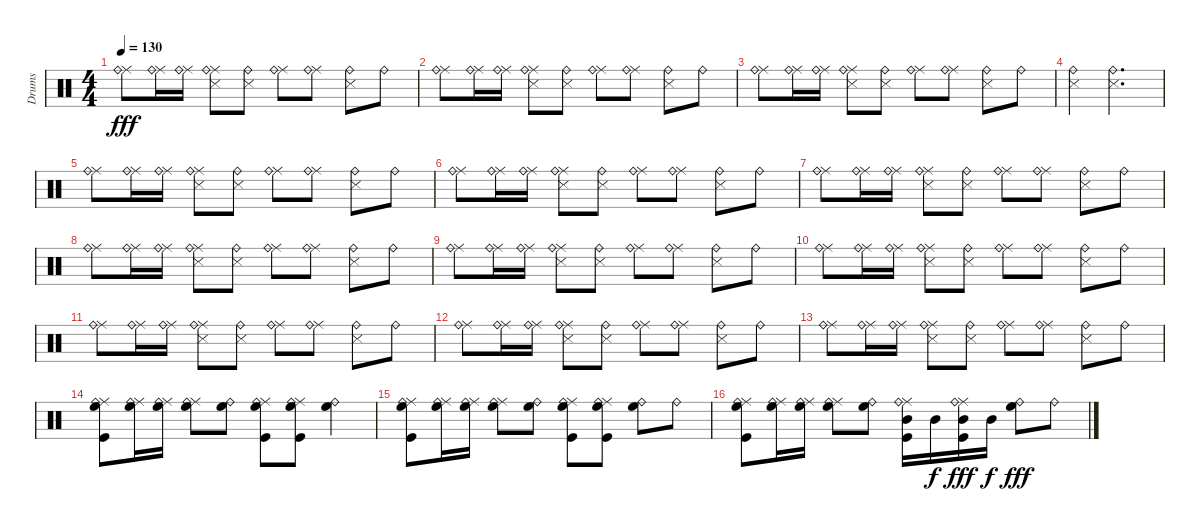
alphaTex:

\track ("Drums" "Drums") {instrument percussion}
\staff {score}
\articulation defaults
\ts (4 4)
\tempo 130
\clef neutral
\ks c
("Ride (middle)" "Ride (bell)").8{dy fff} ("Ride (middle)" "Ride (bell)").16 ("Ride (middle)" "Ride (bell)").16 ("Ride (middle)" "Ride (bell)" "Snare (side stick) 3").8 ("Ride (bell)" "Snare (side stick) 3").8 ("Ride (middle)" "Ride (bell)").8 ("Ride (middle)" "Ride (bell)").8 ("Ride (bell)" "Snare (side stick) 3").8 "Ride (bell)".8 |
("Ride (middle)" "Ride (bell)").8 ("Ride (middle)" "Ride (bell)").16 ("Ride (middle)" "Ride (bell)").16 ("Ride (middle)" "Ride (bell)" "Snare (side stick) 3").8 ("Ride (bell)" "Snare (side stick) 3").8 ("Ride (middle)" "Ride (bell)").8 ("Ride (middle)" "Ride (bell)").8 ("Ride (bell)" "Snare (side stick) 3").8 "Ride (bell)".8 |
("Ride (middle)" "Ride (bell)").8 ("Ride (middle)" "Ride (bell)").16 ("Ride (middle)" "Ride (bell)").16 ("Ride (middle)" "Ride (bell)" "Snare (side stick) 3").8 ("Ride (bell)" "Snare (side stick) 3").8 ("Ride (middle)" "Ride (bell)").8 ("Ride (middle)" "Ride (bell)").8 ("Ride (bell)" "Snare (side stick) 3").8 "Ride (bell)".8 |
("Ride (bell)" "Snare (side stick) 3").4 ("Ride (bell)" "Snare (side stick) 3").2{d} |
("Ride (middle)" "Ride (bell)").8 ("Ride (middle)" "Ride (bell)").16 ("Ride (middle)" "Ride (bell)").16 ("Ride (middle)" "Ride (bell)" "Snare (side stick) 3").8 ("Ride (bell)" "Snare (side stick) 3").8 ("Ride (middle)" "Ride (bell)").8 ("Ride (middle)" "Ride (bell)").8 ("Ride (bell)" "Snare (side stick) 3").8 "Ride (bell)".8 |
("Ride (middle)" "Ride (bell)").8 ("Ride (middle)" "Ride (bell)").16 ("Ride (middle)" "Ride (bell)").16 ("Ride (middle)" "Ride (bell)" "Snare (side stick) 3").8 ("Ride (bell)" "Snare (side stick) 3").8 ("Ride (middle)" "Ride (bell)").8 ("Ride (middle)" "Ride (bell)").8 ("Ride (bell)" "Snare (side stick) 3").8 "Ride (bell)".8 |
("Ride (middle)" "Ride (bell)").8 ("Ride (middle)" "Ride (bell)").16 ("Ride (middle)" "Ride (bell)").16 ("Ride (middle)" "Ride (bell)" "Snare (side stick) 3").8 ("Ride (bell)" "Snare (side stick) 3").8 ("Ride (middle)" "Ride (bell)").8 ("Ride (middle)" "Ride (bell)").8 ("Ride (bell)" "Snare (side stick) 3").8 "Ride (bell)".8 |
("Ride (middle)" "Ride (bell)").8 ("Ride (middle)" "Ride (bell)").16 ("Ride (middle)" "Ride (bell)").16 ("Ride (middle)" "Ride (bell)" "Snare (side stick) 3").8 ("Ride (bell)" "Snare (side stick) 3").8 ("Ride (middle)" "Ride (bell)").8 ("Ride (middle)" "Ride (bell)").8 ("Ride (bell)" "Snare (side stick) 3").8 "Ride (bell)".8 |
("Ride (middle)" "Ride (bell)").8 ("Ride (middle)" "Ride (bell)").16 ("Ride (middle)" "Ride (bell)").16 ("Ride (middle)" "Ride (bell)" "Snare (side stick) 3").8 ("Ride (bell)" "Snare (side stick) 3").8 ("Ride (middle)" "Ride (bell)").8 ("Ride (middle)" "Ride (bell)").8 ("Ride (bell)" "Snare (side stick) 3").8 "Ride (bell)".8 |
("Ride (middle)" "Ride (bell)").8 ("Ride (middle)" "Ride (bell)").16 ("Ride (middle)" "Ride (bell)").16 ("Ride (middle)" "Ride (bell)" "Snare (side stick) 3").8 ("Ride (bell)" "Snare (side stick) 3").8 ("Ride (middle)" "Ride (bell)").8 ("Ride (middle)" "Ride (bell)").8 ("Ride (bell)" "Snare (side stick) 3").8 "Ride (bell)".8 |
("Ride (middle)" "Ride (bell)").8 ("Ride (middle)" "Ride (bell)").16 ("Ride (middle)" "Ride (bell)").16 ("Ride (middle)" "Ride (bell)" "Snare (side stick) 3").8 ("Ride (bell)" "Snare (side stick) 3").8 ("Ride (middle)" "Ride (bell)").8 ("Ride (middle)" "Ride (bell)").8 ("Ride (bell)" "Snare (side stick) 3").8 "Ride (bell)".8 |
("Ride (middle)" "Ride (bell)").8 ("Ride (middle)" "Ride (bell)").16 ("Ride (middle)" "Ride (bell)").16 ("Ride (middle)" "Ride (bell)" "Snare (side stick) 3").8 ("Ride (bell)" "Snare (side stick) 3").8 ("Ride (middle)" "Ride (bell)").8 ("Ride (middle)" "Ride (bell)").8 ("Ride (bell)" "Snare (side stick) 3").8 "Ride (bell)".8 |
("Ride (middle)" "Ride (bell)").8 ("Ride (middle)" "Ride (bell)").16 ("Ride (middle)" "Ride (bell)").16 ("Ride (middle)" "Ride (bell)" "Snare (side stick) 3").8 ("Ride (bell)" "Snare (side stick) 3").8 ("Ride (middle)" "Ride (bell)").8 ("Ride (middle)" "Ride (bell)").8 ("Ride (bell)" "Snare (side stick) 3").8 "Ride (bell)".8 |
("Ride (middle)" "High Floor Tom (hit)" "Ride (bell)" "Kick (hit)").8 ("Ride (middle)" "High Floor Tom (hit)" "Ride (bell)").16 ("Ride (middle)" "High Floor Tom (hit)" "Ride (bell)").16 ("Ride (middle)" "High Floor Tom (hit)" "Ride (bell)").8 ("High Floor Tom (hit)" "Ride (bell)").8 ("Ride (middle)" "High Floor Tom (hit)" "Ride (bell)" "Kick (hit)").8 ("Ride (middle)" "High Floor Tom (hit)" "Ride (bell)" "Kick (hit)").8 ("High Floor Tom (hit)" "Ride (bell)").4 |
("Ride (middle)" "High Floor Tom (hit)" "Ride (bell)" "Kick (hit)").8 ("Ride (middle)" "High Floor Tom (hit)" "Ride (bell)").16 ("Ride (middle)" "High Floor Tom (hit)" "Ride (bell)").16 ("Ride (middle)" "High Floor Tom (hit)" "Ride (bell)").8 ("High Floor Tom (hit)" "Ride (bell)").8 ("Ride (middle)" "High Floor Tom (hit)" "Ride (bell)" "Kick (hit)").8 ("Ride (middle)" "High Floor Tom (hit)" "Ride (bell)" "Kick (hit)").8 ("High Floor Tom (hit)" "Ride (bell)").8 "Ride (bell)".8 |
("Ride (middle)" "High Floor Tom (hit)" "Ride (bell)" "Kick (hit)").8 ("Ride (middle)" "High Floor Tom (hit)" "Ride (bell)").16 ("Ride (middle)" "High Floor Tom (hit)" "Ride (bell)").16 ("Ride (middle)" "High Floor Tom (hit)" "Ride (bell)").8 ("High Floor Tom (hit)" "Ride (bell)").8 ("Ride (middle)" "Mid Tom (hit)" "Ride (bell)" "Kick (hit)").16 "Mid Tom (hit)".16{dy f} ("Ride (middle)" "Mid Tom (hit)" "Ride (bell)" "Kick (hit)").16{dy fff} "Mid Tom (hit)".16{dy f} ("High Floor Tom (hit)" "Ride (bell)").8{dy fff} "Ride (bell)".8
